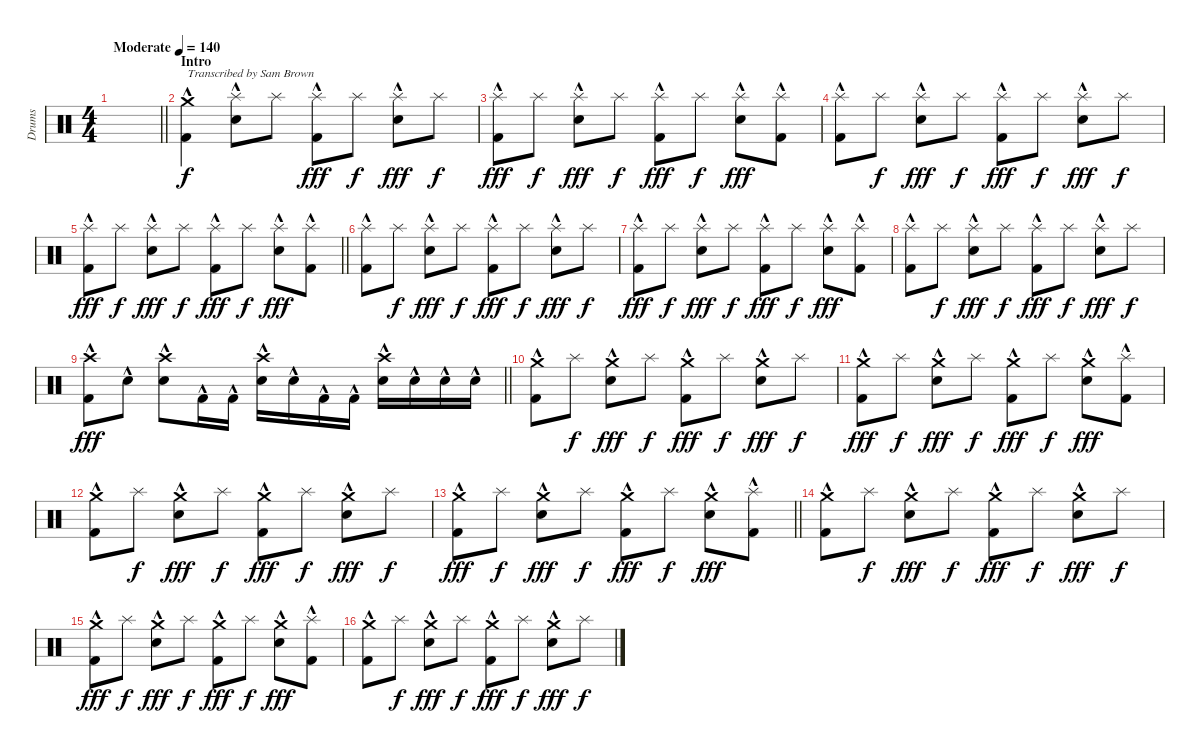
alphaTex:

\track ("Drums" "Drums") {instrument percussion}
\staff {score}
\articulation defaults
\ts (4 4)
\tempo (140 "Moderate")
\clef neutral
\barLineRight lightlight
\ks c
|
\section ("" "Intro")
("Kick (hit) 2"{hac} "Crash medium (hit)").4{txt "Transcribed by Sam Brown"} ("Snare (hit) 2"{hac} "Splash (hit)").8 "Splash (hit)".8{dy f} ("Kick (hit) 2"{hac} "Splash (hit)").8{dy fff} "Splash (hit)".8{dy f} ("Snare (hit) 2"{hac} "Splash (hit)").8{dy fff} "Splash (hit)".8{dy f} |
("Kick (hit) 2"{hac} "Splash (hit)").8{dy fff} "Splash (hit)".8{dy f} ("Snare (hit) 2"{hac} "Splash (hit)").8{dy fff} "Splash (hit)".8{dy f} ("Kick (hit) 2"{hac} "Splash (hit)").8{dy fff} "Splash (hit)".8{dy f} ("Snare (hit) 2"{hac} "Splash (hit)").8{dy fff} ("Kick (hit) 2"{hac} "Splash (hit)").8 |
("Kick (hit) 2"{hac} "Splash (hit)").8 "Splash (hit)".8{dy f} ("Snare (hit) 2"{hac} "Splash (hit)").8{dy fff} "Splash (hit)".8{dy f} ("Kick (hit) 2"{hac} "Splash (hit)").8{dy fff} "Splash (hit)".8{dy f} ("Snare (hit) 2"{hac} "Splash (hit)").8{dy fff} "Splash (hit)".8{dy f} |
\barLineRight lightlight
("Kick (hit) 2"{hac} "Splash (hit)").8{dy fff} "Splash (hit)".8{dy f} ("Snare (hit) 2"{hac} "Splash (hit)").8{dy fff} "Splash (hit)".8{dy f} ("Kick (hit) 2"{hac} "Splash (hit)").8{dy fff} "Splash (hit)".8{dy f} ("Snare (hit) 2"{hac} "Splash (hit)").8{dy fff} ("Kick (hit) 2"{hac} "Splash (hit)").8 |
\section ("" "")
("Kick (hit) 2"{hac} "Splash (hit)").8 "Splash (hit)".8{dy f} ("Snare (hit) 2"{hac} "Splash (hit)").8{dy fff} "Splash (hit)".8{dy f} ("Kick (hit) 2"{hac} "Splash (hit)").8{dy fff} "Splash (hit)".8{dy f} ("Snare (hit) 2"{hac} "Splash (hit)").8{dy fff} "Splash (hit)".8{dy f} |
("Kick (hit) 2"{hac} "Splash (hit)").8{dy fff} "Splash (hit)".8{dy f} ("Snare (hit) 2"{hac} "Splash (hit)").8{dy fff} "Splash (hit)".8{dy f} ("Kick (hit) 2"{hac} "Splash (hit)").8{dy fff} "Splash (hit)".8{dy f} ("Snare (hit) 2"{hac} "Splash (hit)").8{dy fff} ("Kick (hit) 2"{hac} "Splash (hit)").8 |
("Kick (hit) 2"{hac} "Splash (hit)").8 "Splash (hit)".8{dy f} ("Snare (hit) 2"{hac} "Splash (hit)").8{dy fff} "Splash (hit)".8{dy f} ("Kick (hit) 2"{hac} "Splash (hit)").8{dy fff} "Splash (hit)".8{dy f} ("Snare (hit) 2"{hac} "Splash (hit)").8{dy fff} "Splash (hit)".8{dy f} |
\barLineRight lightlight
("Kick (hit) 2"{hac} "Crash high (hit)").8{dy fff} "Snare (hit) 2"{hac}.8 ("Snare (hit) 2"{hac} "Crash high (hit)").8 "Kick (hit) 2"{hac}.16 "Kick (hit) 2"{hac}.16 ("Snare (hit) 2"{hac} "Crash high (hit)").16 "Snare (hit) 2"{hac}.16 "Kick (hit) 2"{hac}.16 "Kick (hit) 2"{hac}.16 ("Snare (hit) 2"{hac} "Crash high (hit)").16 "Snare (hit) 2"{hac}.16 "Snare (hit) 2"{hac}.16 "Snare (hit) 2"{hac}.16 |
\section ("" "")
("Kick (hit) 2"{hac} "Crash medium (hit)").8 "Splash (hit)".8{dy f} ("Snare (hit) 2"{hac} "Crash medium (hit)").8{dy fff} "Splash (hit)".8{dy f} ("Kick (hit) 2"{hac} "Crash medium (hit)").8{dy fff} "Splash (hit)".8{dy f} ("Snare (hit) 2"{hac} "Crash medium (hit)").8{dy fff} "Splash (hit)".8{dy f} |
("Kick (hit) 2"{hac} "Crash medium (hit)").8{dy fff} "Splash (hit)".8{dy f} ("Snare (hit) 2"{hac} "Crash medium (hit)").8{dy fff} "Splash (hit)".8{dy f} ("Kick (hit) 2"{hac} "Crash medium (hit)").8{dy fff} "Splash (hit)".8{dy f} ("Snare (hit) 2"{hac} "Crash medium (hit)").8{dy fff} ("Kick (hit) 2"{hac} "Splash (hit)").8 |
("Kick (hit) 2"{hac} "Crash medium (hit)").8 "Splash (hit)".8{dy f} ("Snare (hit) 2"{hac} "Crash medium (hit)").8{dy fff} "Splash (hit)".8{dy f} ("Kick (hit) 2"{hac} "Crash medium (hit)").8{dy fff} "Splash (hit)".8{dy f} ("Snare (hit) 2"{hac} "Crash medium (hit)").8{dy fff} "Splash (hit)".8{dy f} |
\barLineRight lightlight
("Kick (hit) 2"{hac} "Crash medium (hit)").8{dy fff} "Splash (hit)".8{dy f} ("Snare (hit) 2"{hac} "Crash medium (hit)").8{dy fff} "Splash (hit)".8{dy f} ("Kick (hit) 2"{hac} "Crash medium (hit)").8{dy fff} "Splash (hit)".8{dy f} ("Snare (hit) 2"{hac} "Crash medium (hit)").8{dy fff} ("Kick (hit) 2"{hac} "Splash (hit)").8 |
\section ("" "")
("Kick (hit) 2"{hac} "Crash medium (hit)").8 "Splash (hit)".8{dy f} ("Snare (hit) 2"{hac} "Crash medium (hit)").8{dy fff} "Splash (hit)".8{dy f} ("Kick (hit) 2"{hac} "Crash medium (hit)").8{dy fff} "Splash (hit)".8{dy f} ("Snare (hit) 2"{hac} "Crash medium (hit)").8{dy fff} "Splash (hit)".8{dy f} |
("Kick (hit) 2"{hac} "Crash medium (hit)").8{dy fff} "Splash (hit)".8{dy f} ("Snare (hit) 2"{hac} "Crash medium (hit)").8{dy fff} "Splash (hit)".8{dy f} ("Kick (hit) 2"{hac} "Crash medium (hit)").8{dy fff} "Splash (hit)".8{dy f} ("Snare (hit) 2"{hac} "Crash medium (hit)").8{dy fff} ("Kick (hit) 2"{hac} "Splash (hit)").8 |
("Kick (hit) 2"{hac} "Crash medium (hit)").8 "Splash (hit)".8{dy f} ("Snare (hit) 2"{hac} "Crash medium (hit)").8{dy fff} "Splash (hit)".8{dy f} ("Kick (hit) 2"{hac} "Crash medium (hit)").8{dy fff} "Splash (hit)".8{dy f} ("Snare (hit) 2"{hac} "Crash medium (hit)").8{dy fff} "Splash (hit)".8{dy f}
